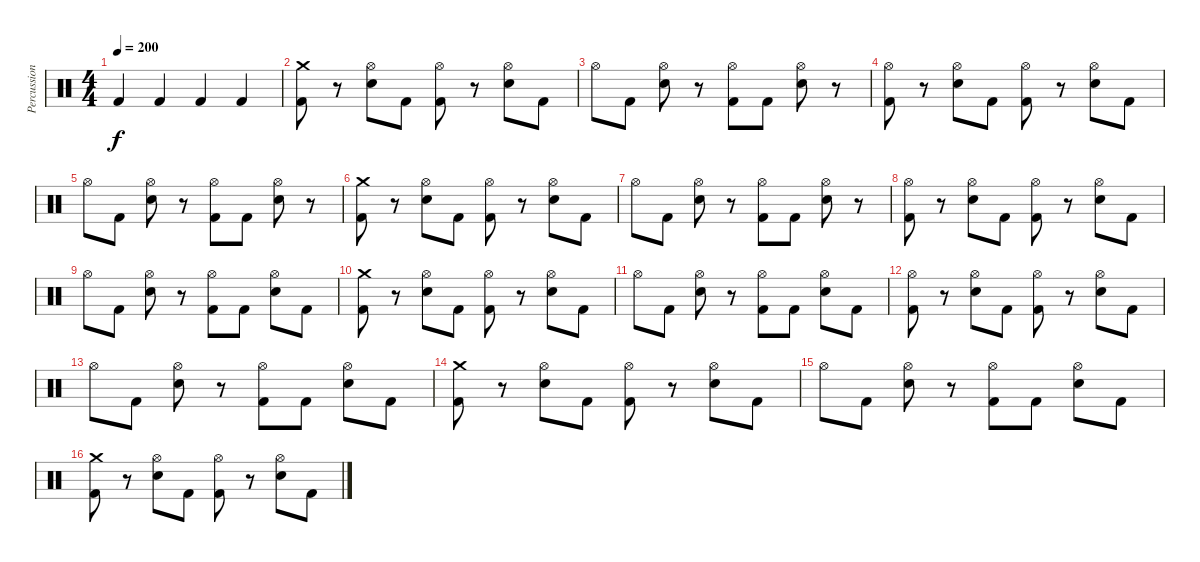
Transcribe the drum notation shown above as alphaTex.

\track ("Percussion" "Percussion") {instrument percussion}
\staff {score}
\articulation defaults
\ts (4 4)
\tempo 200
\clef neutral
\ks c "Kick (hit) 2".4{dy f} "Kick (hit) 2".4 "Kick (hit) 2".4 "Kick (hit) 2".4
|
("Crash medium (hit)" "Kick (hit) 2").8 r.8 ("Hi-Hat (open)" "Electric Snare (hit)").8 "Kick (hit) 2".8 ("Hi-Hat (open)" "Kick (hit) 2").8 r.8 ("Hi-Hat (open)" "Electric Snare (hit)").8 "Kick (hit) 2".8 |
"Hi-Hat (open)".8 "Kick (hit) 2".8 ("Hi-Hat (open)" "Electric Snare (hit)").8 r.8 ("Hi-Hat (open)" "Kick (hit) 2").8 "Kick (hit) 2".8 ("Hi-Hat (open)" "Electric Snare (hit)").8 r.8 |
("Hi-Hat (open)" "Kick (hit) 2").8 r.8 ("Hi-Hat (open)" "Electric Snare (hit)").8 "Kick (hit) 2".8 ("Hi-Hat (open)" "Kick (hit) 2").8 r.8 ("Hi-Hat (open)" "Electric Snare (hit)").8 "Kick (hit) 2".8 |
"Hi-Hat (open)".8 "Kick (hit) 2".8 ("Hi-Hat (open)" "Electric Snare (hit)").8 r.8 ("Hi-Hat (open)" "Kick (hit) 2").8 "Kick (hit) 2".8 ("Hi-Hat (open)" "Electric Snare (hit)").8 r.8 |
("Crash medium (hit)" "Kick (hit) 2").8 r.8 ("Hi-Hat (open)" "Electric Snare (hit)").8 "Kick (hit) 2".8 ("Hi-Hat (open)" "Kick (hit) 2").8 r.8 ("Hi-Hat (open)" "Electric Snare (hit)").8 "Kick (hit) 2".8 |
"Hi-Hat (open)".8 "Kick (hit) 2".8 ("Hi-Hat (open)" "Electric Snare (hit)").8 r.8 ("Hi-Hat (open)" "Kick (hit) 2").8 "Kick (hit) 2".8 ("Hi-Hat (open)" "Electric Snare (hit)").8 r.8 |
("Hi-Hat (open)" "Kick (hit) 2").8 r.8 ("Hi-Hat (open)" "Electric Snare (hit)").8 "Kick (hit) 2".8 ("Hi-Hat (open)" "Kick (hit) 2").8 r.8 ("Hi-Hat (open)" "Electric Snare (hit)").8 "Kick (hit) 2".8 |
"Hi-Hat (open)".8 "Kick (hit) 2".8 ("Hi-Hat (open)" "Electric Snare (hit)").8 r.8 ("Hi-Hat (open)" "Kick (hit) 2").8 "Kick (hit) 2".8 ("Hi-Hat (open)" "Electric Snare (hit)").8 "Kick (hit) 2".8 |
("Crash medium (hit)" "Kick (hit) 2").8 r.8 ("Hi-Hat (open)" "Electric Snare (hit)").8 "Kick (hit) 2".8 ("Hi-Hat (open)" "Kick (hit) 2").8 r.8 ("Hi-Hat (open)" "Electric Snare (hit)").8 "Kick (hit) 2".8 |
"Hi-Hat (open)".8 "Kick (hit) 2".8 ("Hi-Hat (open)" "Electric Snare (hit)").8 r.8 ("Hi-Hat (open)" "Kick (hit) 2").8 "Kick (hit) 2".8 ("Hi-Hat (open)" "Electric Snare (hit)").8 "Kick (hit) 2".8 |
("Hi-Hat (open)" "Kick (hit) 2").8 r.8 ("Hi-Hat (open)" "Electric Snare (hit)").8 "Kick (hit) 2".8 ("Hi-Hat (open)" "Kick (hit) 2").8 r.8 ("Hi-Hat (open)" "Electric Snare (hit)").8 "Kick (hit) 2".8 |
"Hi-Hat (open)".8 "Kick (hit) 2".8 ("Hi-Hat (open)" "Electric Snare (hit)").8 r.8 ("Hi-Hat (open)" "Kick (hit) 2").8 "Kick (hit) 2".8 ("Hi-Hat (open)" "Electric Snare (hit)").8 "Kick (hit) 2".8 |
("Crash medium (hit)" "Kick (hit) 2").8 r.8 ("Hi-Hat (open)" "Electric Snare (hit)").8 "Kick (hit) 2".8 ("Hi-Hat (open)" "Kick (hit) 2").8 r.8 ("Hi-Hat (open)" "Electric Snare (hit)").8 "Kick (hit) 2".8 |
"Hi-Hat (open)".8 "Kick (hit) 2".8 ("Hi-Hat (open)" "Electric Snare (hit)").8 r.8 ("Hi-Hat (open)" "Kick (hit) 2").8 "Kick (hit) 2".8 ("Hi-Hat (open)" "Electric Snare (hit)").8 "Kick (hit) 2".8 |
("Crash medium (hit)" "Kick (hit) 2").8 r.8 ("Hi-Hat (open)" "Electric Snare (hit)").8 "Kick (hit) 2".8 ("Hi-Hat (open)" "Kick (hit) 2").8 r.8 ("Hi-Hat (open)" "Electric Snare (hit)").8 "Kick (hit) 2".8
